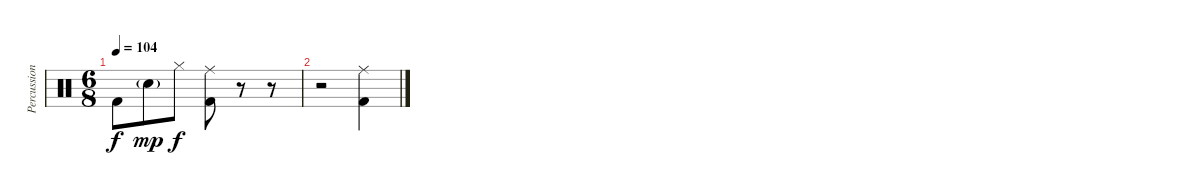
\track ("Percussion" "Percussion") {instrument percussion}
\staff {score}
\articulation defaults
\ts (6 8)
\tempo 104
\clef neutral
\ks c "Kick (hit) 2".8{dy f} "Snare (hit) 2"{g}.8{dy mp} "Hi-Hat (closed)".8{dy f}
("Ride (middle)" "Kick (hit) 2").8 r.8 r.8 |
r.2 ("Ride (middle)" "Kick (hit) 2").4
